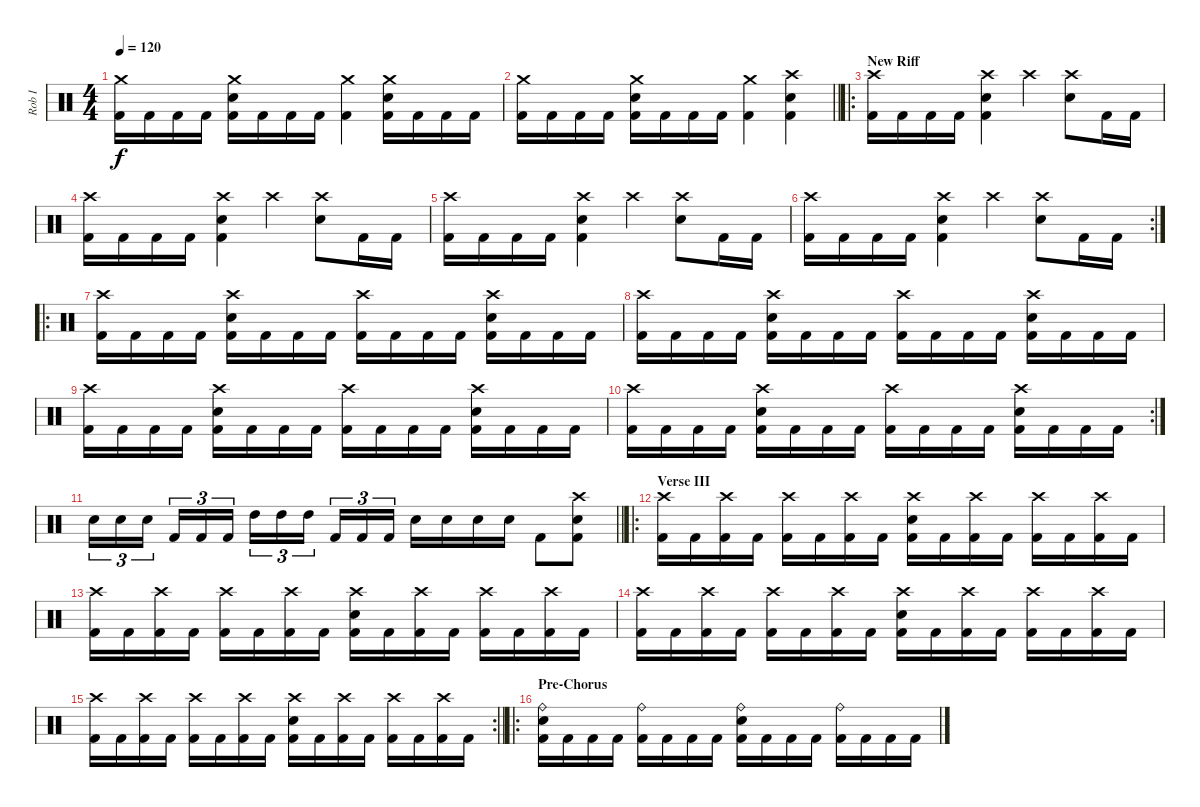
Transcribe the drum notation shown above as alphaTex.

\track ("Rob I" "Rob I") {instrument percussion}
\staff {score}
\articulation defaults
\ts (4 4)
\tempo 120
\clef neutral
\ks c
("Crash medium (hit)" "Kick (hit) 2").16{dy f} "Kick (hit) 2".16 "Kick (hit) 2".16 "Kick (hit) 2".16 ("Crash medium (hit)" "Electric Snare (hit)" "Kick (hit) 2").16 "Kick (hit) 2".16 "Kick (hit) 2".16 "Kick (hit) 2".16 ("Crash medium (hit)" "Kick (hit) 2").4 ("Crash medium (hit)" "Electric Snare (hit)" "Kick (hit) 2").16 "Kick (hit) 2".16 "Kick (hit) 2".16 "Kick (hit) 2".16 |
\barLineRight lightlight
("Crash medium (hit)" "Kick (hit) 2").16 "Kick (hit) 2".16 "Kick (hit) 2".16 "Kick (hit) 2".16 ("Crash medium (hit)" "Electric Snare (hit)" "Kick (hit) 2").16 "Kick (hit) 2".16 "Kick (hit) 2".16 "Kick (hit) 2".16 ("Crash medium (hit)" "Kick (hit) 2").4 ("Crash high (hit)" "Electric Snare (hit)" "Kick (hit) 2").4 |
\ro
\section ("" "New Riff")
("Crash high (hit)" "Kick (hit) 2").16 "Kick (hit) 2".16 "Kick (hit) 2".16 "Kick (hit) 2".16 ("Crash high (hit)" "Electric Snare (hit)" "Kick (hit) 2").4 "Crash high (hit)".4 ("Crash high (hit)" "Electric Snare (hit)").8 "Kick (hit) 2".16 "Kick (hit) 2".16 |
("Crash high (hit)" "Kick (hit) 2").16 "Kick (hit) 2".16 "Kick (hit) 2".16 "Kick (hit) 2".16 ("Crash high (hit)" "Electric Snare (hit)" "Kick (hit) 2").4 "Crash high (hit)".4 ("Crash high (hit)" "Electric Snare (hit)").8 "Kick (hit) 2".16 "Kick (hit) 2".16 |
("Crash high (hit)" "Kick (hit) 2").16 "Kick (hit) 2".16 "Kick (hit) 2".16 "Kick (hit) 2".16 ("Crash high (hit)" "Electric Snare (hit)" "Kick (hit) 2").4 "Crash high (hit)".4 ("Crash high (hit)" "Electric Snare (hit)").8 "Kick (hit) 2".16 "Kick (hit) 2".16 |
\rc 2
("Crash high (hit)" "Kick (hit) 2").16 "Kick (hit) 2".16 "Kick (hit) 2".16 "Kick (hit) 2".16 ("Crash high (hit)" "Electric Snare (hit)" "Kick (hit) 2").4 "Crash high (hit)".4 ("Crash high (hit)" "Electric Snare (hit)").8 "Kick (hit) 2".16 "Kick (hit) 2".16 |
\ro
("Crash high (hit)" "Kick (hit) 2").16 "Kick (hit) 2".16 "Kick (hit) 2".16 "Kick (hit) 2".16 ("Crash high (hit)" "Electric Snare (hit)" "Kick (hit) 2").16 "Kick (hit) 2".16 "Kick (hit) 2".16 "Kick (hit) 2".16 ("Crash high (hit)" "Kick (hit) 2").16 "Kick (hit) 2".16 "Kick (hit) 2".16 "Kick (hit) 2".16 ("Crash high (hit)" "Electric Snare (hit)" "Kick (hit) 2").16 "Kick (hit) 2".16 "Kick (hit) 2".16 "Kick (hit) 2".16 |
("Crash high (hit)" "Kick (hit) 2").16 "Kick (hit) 2".16 "Kick (hit) 2".16 "Kick (hit) 2".16 ("Crash high (hit)" "Electric Snare (hit)" "Kick (hit) 2").16 "Kick (hit) 2".16 "Kick (hit) 2".16 "Kick (hit) 2".16 ("Crash high (hit)" "Kick (hit) 2").16 "Kick (hit) 2".16 "Kick (hit) 2".16 "Kick (hit) 2".16 ("Crash high (hit)" "Electric Snare (hit)" "Kick (hit) 2").16 "Kick (hit) 2".16 "Kick (hit) 2".16 "Kick (hit) 2".16 |
("Crash high (hit)" "Kick (hit) 2").16 "Kick (hit) 2".16 "Kick (hit) 2".16 "Kick (hit) 2".16 ("Crash high (hit)" "Electric Snare (hit)" "Kick (hit) 2").16 "Kick (hit) 2".16 "Kick (hit) 2".16 "Kick (hit) 2".16 ("Crash high (hit)" "Kick (hit) 2").16 "Kick (hit) 2".16 "Kick (hit) 2".16 "Kick (hit) 2".16 ("Crash high (hit)" "Electric Snare (hit)" "Kick (hit) 2").16 "Kick (hit) 2".16 "Kick (hit) 2".16 "Kick (hit) 2".16 |
\rc 2
("Crash high (hit)" "Kick (hit) 2").16 "Kick (hit) 2".16 "Kick (hit) 2".16 "Kick (hit) 2".16 ("Crash high (hit)" "Electric Snare (hit)" "Kick (hit) 2").16 "Kick (hit) 2".16 "Kick (hit) 2".16 "Kick (hit) 2".16 ("Crash high (hit)" "Kick (hit) 2").16 "Kick (hit) 2".16 "Kick (hit) 2".16 "Kick (hit) 2".16 ("Crash high (hit)" "Electric Snare (hit)" "Kick (hit) 2").16 "Kick (hit) 2".16 "Kick (hit) 2".16 "Kick (hit) 2".16 |
\barLineRight lightlight "Electric Snare (hit)".16{tu (3 2)} "Electric Snare (hit)".16{tu (3 2)} "Electric Snare (hit)".16{tu (3 2) beam splitsecondary} "Kick (hit) 2".16{tu (3 2)} "Kick (hit) 2".16{tu (3 2)} "Kick (hit) 2".16{tu (3 2)} "High Tom (hit)".16{tu (3 2)} "High Tom (hit)".16{tu (3 2)} "High Tom (hit)".16{tu (3 2) beam splitsecondary} "Kick (hit) 2".16{tu (3 2)} "Kick (hit) 2".16{tu (3 2)} "Kick (hit) 2".16{tu (3 2)} "Electric Snare (hit)".16 "Electric Snare (hit)".16 "Electric Snare (hit)".16 "Electric Snare (hit)".16 "Kick (hit) 2".8
("Crash high (hit)" "Kick (hit) 2" "Electric Snare (hit)").8 |
\ro
\section ("" "Verse III")
("Kick (hit) 2" "Crash high (hit)").16 "Kick (hit) 2".16 ("Kick (hit) 2" "Crash high (hit)").16 "Kick (hit) 2".16 ("Kick (hit) 2" "Crash high (hit)").16 "Kick (hit) 2".16 ("Kick (hit) 2" "Crash high (hit)").16 "Kick (hit) 2".16 ("Kick (hit) 2" "Crash high (hit)" "Electric Snare (hit)").16 "Kick (hit) 2".16 ("Kick (hit) 2" "Crash high (hit)").16 "Kick (hit) 2".16 ("Kick (hit) 2" "Crash high (hit)").16 "Kick (hit) 2".16 ("Kick (hit) 2" "Crash high (hit)").16 "Kick (hit) 2".16 |
("Kick (hit) 2" "Crash high (hit)").16 "Kick (hit) 2".16 ("Kick (hit) 2" "Crash high (hit)").16 "Kick (hit) 2".16 ("Kick (hit) 2" "Crash high (hit)").16 "Kick (hit) 2".16 ("Kick (hit) 2" "Crash high (hit)").16 "Kick (hit) 2".16 ("Kick (hit) 2" "Crash high (hit)" "Electric Snare (hit)").16 "Kick (hit) 2".16 ("Kick (hit) 2" "Crash high (hit)").16 "Kick (hit) 2".16 ("Kick (hit) 2" "Crash high (hit)").16 "Kick (hit) 2".16 ("Kick (hit) 2" "Crash high (hit)").16 "Kick (hit) 2".16 |
("Kick (hit) 2" "Crash high (hit)").16 "Kick (hit) 2".16 ("Kick (hit) 2" "Crash high (hit)").16 "Kick (hit) 2".16 ("Kick (hit) 2" "Crash high (hit)").16 "Kick (hit) 2".16 ("Kick (hit) 2" "Crash high (hit)").16 "Kick (hit) 2".16 ("Kick (hit) 2" "Crash high (hit)" "Electric Snare (hit)").16 "Kick (hit) 2".16 ("Kick (hit) 2" "Crash high (hit)").16 "Kick (hit) 2".16 ("Kick (hit) 2" "Crash high (hit)").16 "Kick (hit) 2".16 ("Kick (hit) 2" "Crash high (hit)").16 "Kick (hit) 2".16 |
\rc 2
\barLineRight lightlight
("Kick (hit) 2" "Crash high (hit)").16 "Kick (hit) 2".16 ("Kick (hit) 2" "Crash high (hit)").16 "Kick (hit) 2".16 ("Kick (hit) 2" "Crash high (hit)").16 "Kick (hit) 2".16 ("Kick (hit) 2" "Crash high (hit)").16 "Kick (hit) 2".16 ("Kick (hit) 2" "Crash high (hit)" "Electric Snare (hit)").16 "Kick (hit) 2".16 ("Kick (hit) 2" "Crash high (hit)").16 "Kick (hit) 2".16 ("Kick (hit) 2" "Crash high (hit)").16 "Kick (hit) 2".16 ("Kick (hit) 2" "Crash high (hit)").16 "Kick (hit) 2".16 |
\ro
\section ("" "Pre-Chorus")
("Kick (hit) 2" "Ride (bell)" "Electric Snare (hit)").16 "Kick (hit) 2".16 "Kick (hit) 2".16 "Kick (hit) 2".16 ("Kick (hit) 2" "Ride (bell)").16 "Kick (hit) 2".16 "Kick (hit) 2".16 "Kick (hit) 2".16 ("Kick (hit) 2" "Ride (bell)" "Electric Snare (hit)").16 "Kick (hit) 2".16 "Kick (hit) 2".16 "Kick (hit) 2".16 ("Kick (hit) 2" "Ride (bell)").16 "Kick (hit) 2".16 "Kick (hit) 2".16 "Kick (hit) 2".16
